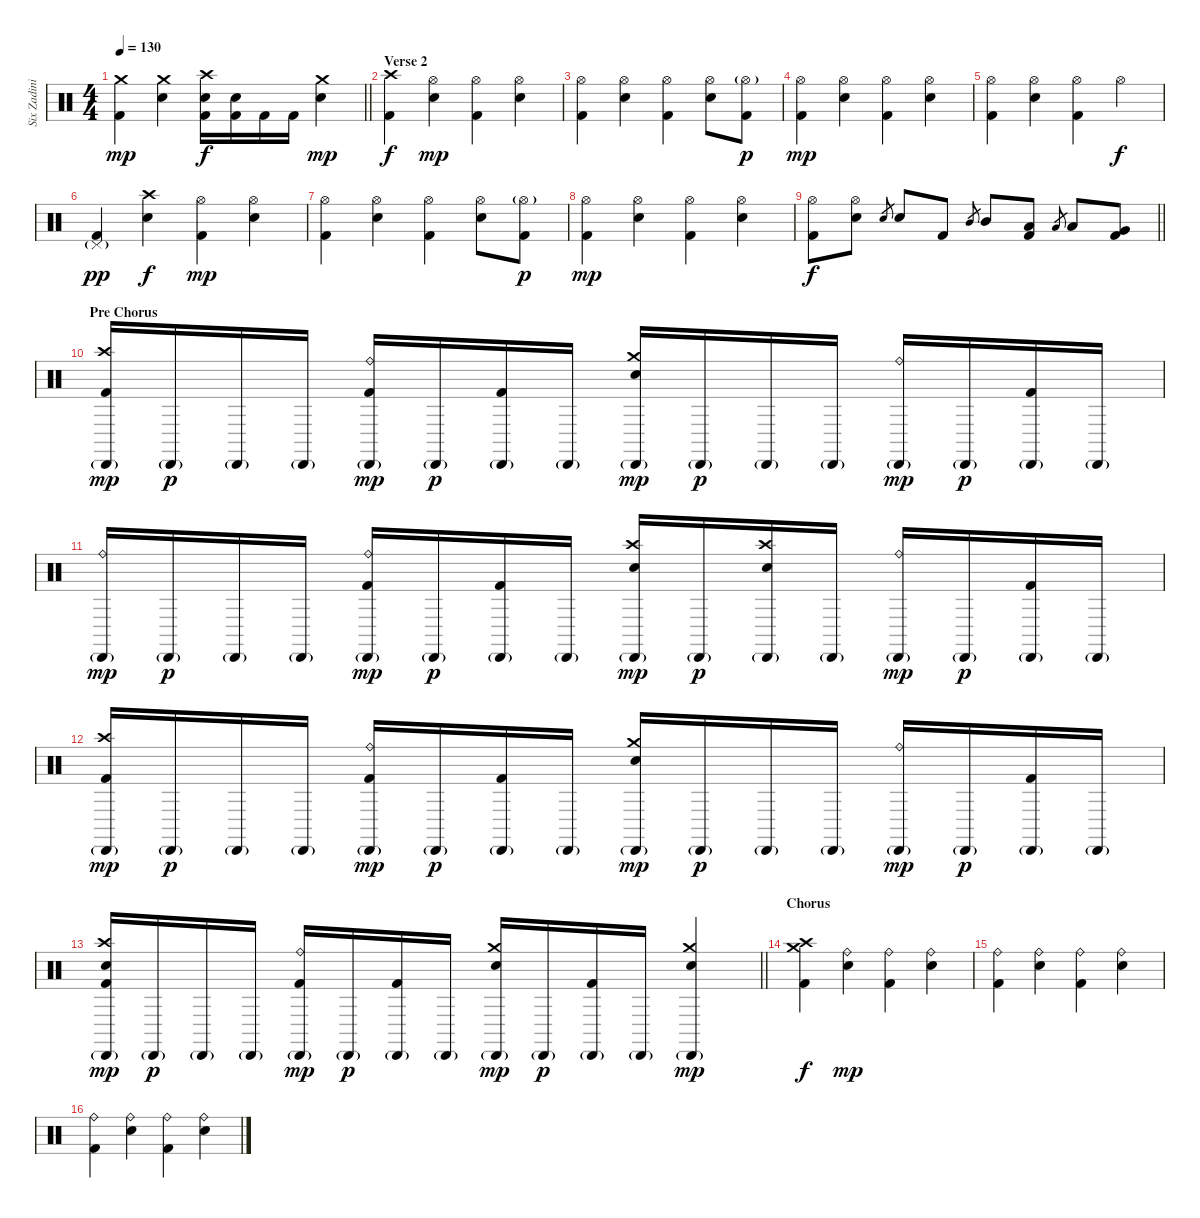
\track ("Six Zadinia" "Six Zadini") {instrument percussion}
\staff {score}
\articulation defaults
\ts (4 4)
\tempo 130
\clef neutral
\barLineRight lightlight
\ks c
("Crash medium (hit)" "Kick (hit) 2").4{dy mp} ("Crash medium (hit)" "Electric Snare (hit)").4 ("Crash high (hit)" "Electric Snare (hit)" "Kick (hit) 2").16{dy f} ("Electric Snare (hit)" "Kick (hit) 2").16 "Kick (hit) 2".16 "Kick (hit) 2".16 ("Crash medium (hit)" "Electric Snare (hit)").4{dy mp} |
\section ("" "Verse 2")
("Crash high (hit)" "Kick (hit) 2").4{dy f} ("Hi-Hat (open)" "Electric Snare (hit)").4{dy mp} ("Hi-Hat (open)" "Kick (hit) 2").4 ("Hi-Hat (open)" "Electric Snare (hit)").4 |
("Hi-Hat (open)" "Kick (hit) 2").4 ("Hi-Hat (open)" "Electric Snare (hit)").4 ("Hi-Hat (open)" "Kick (hit) 2").4 ("Hi-Hat (open)" "Electric Snare (hit)").8 ("Hi-Hat (open)"{g} "Kick (hit) 2").8{dy p} |
("Hi-Hat (open)" "Kick (hit) 2").4{dy mp} ("Hi-Hat (open)" "Electric Snare (hit)").4 ("Hi-Hat (open)" "Kick (hit) 2").4 ("Hi-Hat (open)" "Electric Snare (hit)").4 |
("Hi-Hat (open)" "Kick (hit) 2").4 ("Hi-Hat (open)" "Electric Snare (hit)").4 ("Hi-Hat (open)" "Kick (hit) 2").4 "Hi-Hat (open)".4{dy f} |
("Pedal Hi-Hat (hit)"{g} "Kick (hit) 2").4{dy pp} ("Crash high (hit)" "Electric Snare (hit)").4{dy f} ("Hi-Hat (open)" "Kick (hit) 2").4{dy mp} ("Hi-Hat (open)" "Electric Snare (hit)").4 |
("Hi-Hat (open)" "Kick (hit) 2").4 ("Hi-Hat (open)" "Electric Snare (hit)").4 ("Hi-Hat (open)" "Kick (hit) 2").4 ("Hi-Hat (open)" "Electric Snare (hit)").8 ("Hi-Hat (open)"{g} "Kick (hit) 2").8{dy p} |
("Hi-Hat (open)" "Kick (hit) 2").4{dy mp} ("Hi-Hat (open)" "Electric Snare (hit)").4 ("Hi-Hat (open)" "Kick (hit) 2").4 ("Hi-Hat (open)" "Electric Snare (hit)").4 |
\barLineRight lightlight
("Hi-Hat (open)" "Kick (hit) 2").8{dy f} ("Hi-Hat (open)" "Electric Snare (hit)").8 "Electric Snare (hit)".8{gr} "Electric Snare (hit)".8 "Kick (hit) 2".8 "Mid Tom (hit)".8{gr} "Mid Tom (hit)".8 ("Low Tom (hit)" "Kick (hit) 2").8 "Low Tom (hit)".8{gr} "Low Tom (hit)".8 ("Very Low Tom (hit)" "Kick (hit) 2").8 |
\section ("" "Pre Chorus")
("Crash high (hit)" "Cabasa (hit)"{g} "Kick (hit) 2").16{dy mp} "Cabasa (hit)"{g}.16{dy p} "Cabasa (hit)"{g}.16 "Cabasa (hit)"{g}.16 ("Ride (bell)" "Cabasa (hit)"{g} "Kick (hit) 2").16{dy mp} "Cabasa (hit)"{g}.16{dy p} ("Cabasa (hit)"{g} "Kick (hit) 2").16 "Cabasa (hit)"{g}.16 ("Crash medium (hit)" "Electric Snare (hit)" "Cabasa (hit)"{g}).16{dy mp} "Cabasa (hit)"{g}.16{dy p} "Cabasa (hit)"{g}.16 "Cabasa (hit)"{g}.16 ("Ride (bell)" "Cabasa (hit)"{g}).16{dy mp} "Cabasa (hit)"{g}.16{dy p} ("Cabasa (hit)"{g} "Kick (hit) 2").16 "Cabasa (hit)"{g}.16 |
("Ride (bell)" "Cabasa (hit)"{g}).16{dy mp} "Cabasa (hit)"{g}.16{dy p} "Cabasa (hit)"{g}.16 "Cabasa (hit)"{g}.16 ("Ride (bell)" "Cabasa (hit)"{g} "Kick (hit) 2").16{dy mp} "Cabasa (hit)"{g}.16{dy p} ("Cabasa (hit)"{g} "Kick (hit) 2").16 "Cabasa (hit)"{g}.16 ("Crash high (hit)" "Electric Snare (hit)" "Cabasa (hit)"{g}).16{dy mp} "Cabasa (hit)"{g}.16{dy p} ("Crash high (hit)" "Electric Snare (hit)" "Cabasa (hit)"{g}).16 "Cabasa (hit)"{g}.16 ("Ride (bell)" "Cabasa (hit)"{g}).16{dy mp} "Cabasa (hit)"{g}.16{dy p} ("Cabasa (hit)"{g} "Kick (hit) 2").16 "Cabasa (hit)"{g}.16 |
("Crash high (hit)" "Cabasa (hit)"{g} "Kick (hit) 2").16{dy mp} "Cabasa (hit)"{g}.16{dy p} "Cabasa (hit)"{g}.16 "Cabasa (hit)"{g}.16 ("Ride (bell)" "Cabasa (hit)"{g} "Kick (hit) 2").16{dy mp} "Cabasa (hit)"{g}.16{dy p} ("Cabasa (hit)"{g} "Kick (hit) 2").16 "Cabasa (hit)"{g}.16 ("Crash medium (hit)" "Electric Snare (hit)" "Cabasa (hit)"{g}).16{dy mp} "Cabasa (hit)"{g}.16{dy p} "Cabasa (hit)"{g}.16 "Cabasa (hit)"{g}.16 ("Ride (bell)" "Cabasa (hit)"{g}).16{dy mp} "Cabasa (hit)"{g}.16{dy p} ("Cabasa (hit)"{g} "Kick (hit) 2").16 "Cabasa (hit)"{g}.16 |
\barLineRight lightlight
("Crash high (hit)" "Electric Snare (hit)" "Cabasa (hit)"{g} "Kick (hit) 2").16{dy mp} "Cabasa (hit)"{g}.16{dy p} "Cabasa (hit)"{g}.16 "Cabasa (hit)"{g}.16 ("Ride (bell)" "Cabasa (hit)"{g} "Kick (hit) 2").16{dy mp} "Cabasa (hit)"{g}.16{dy p} ("Cabasa (hit)"{g} "Kick (hit) 2").16 "Cabasa (hit)"{g}.16 ("Crash medium (hit)" "Electric Snare (hit)" "Cabasa (hit)"{g}).16{dy mp} "Cabasa (hit)"{g}.16{dy p} ("Cabasa (hit)"{g} "Kick (hit) 2").16 "Cabasa (hit)"{g}.16 ("Crash medium (hit)" "Electric Snare (hit)" "Cabasa (hit)"{g}).4{dy mp} |
\section ("" "Chorus")
("Crash high (hit)" "Crash medium (hit)" "Kick (hit) 2").4{dy f} ("Ride (bell)" "Electric Snare (hit)").4{dy mp} ("Ride (bell)" "Kick (hit) 2").4 ("Ride (bell)" "Electric Snare (hit)").4 |
("Ride (bell)" "Kick (hit) 2").4 ("Ride (bell)" "Electric Snare (hit)").4 ("Ride (bell)" "Kick (hit) 2").4 ("Ride (bell)" "Electric Snare (hit)").4 |
("Ride (bell)" "Kick (hit) 2").4 ("Ride (bell)" "Electric Snare (hit)").4 ("Ride (bell)" "Kick (hit) 2").4 ("Ride (bell)" "Electric Snare (hit)").4
